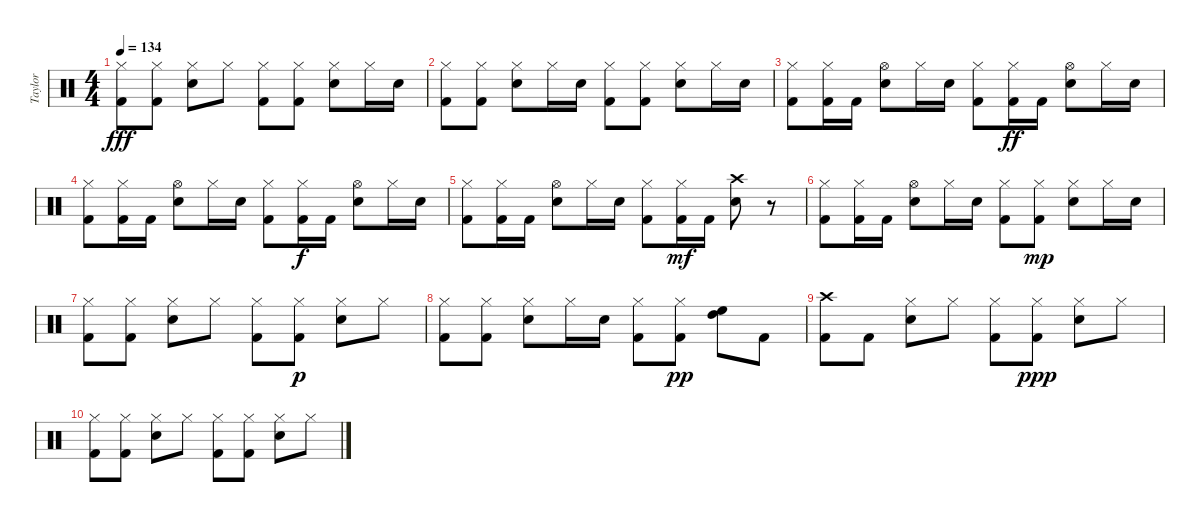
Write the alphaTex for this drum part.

\track ("Taylor" "Taylor") {instrument percussion}
\staff {score}
\articulation defaults
\ts (4 4)
\tempo 134
\clef neutral
\ks c
("Kick (hit) 2" "Hi-Hat (closed)").8{dy fff} ("Kick (hit) 2" "Hi-Hat (closed)").8 ("Snare (hit) 2" "Hi-Hat (closed)").8 "Hi-Hat (closed)".8 ("Kick (hit) 2" "Hi-Hat (closed)").8 ("Kick (hit) 2" "Hi-Hat (closed)").8 ("Snare (hit) 2" "Hi-Hat (closed)").8 "Hi-Hat (closed)".16 "Snare (hit) 2".16 |
("Kick (hit) 2" "Hi-Hat (closed)").8 ("Kick (hit) 2" "Hi-Hat (closed)").8 ("Snare (hit) 2" "Hi-Hat (closed)").8 "Hi-Hat (closed)".16 "Snare (hit) 2".16 ("Kick (hit) 2" "Hi-Hat (closed)").8 ("Kick (hit) 2" "Hi-Hat (closed)").8 ("Snare (hit) 2" "Hi-Hat (closed)").8 "Hi-Hat (closed)".16 "Snare (hit) 2".16 |
("Kick (hit) 2" "Hi-Hat (closed)").8 ("Kick (hit) 2" "Hi-Hat (closed)").16 "Kick (hit) 2".16 ("Snare (hit) 2" "Hi-Hat (open)").8 "Hi-Hat (closed)".16 "Snare (hit) 2".16 ("Kick (hit) 2" "Hi-Hat (closed)").8 ("Kick (hit) 2" "Hi-Hat (closed)").16{dy ff} "Kick (hit) 2".16 ("Snare (hit) 2" "Hi-Hat (open)").8 "Hi-Hat (closed)".16 "Snare (hit) 2".16 |
("Kick (hit) 2" "Hi-Hat (closed)").8 ("Kick (hit) 2" "Hi-Hat (closed)").16 "Kick (hit) 2".16 ("Snare (hit) 2" "Hi-Hat (open)").8 "Hi-Hat (closed)".16 "Snare (hit) 2".16 ("Kick (hit) 2" "Hi-Hat (closed)").8 ("Kick (hit) 2" "Hi-Hat (closed)").16{dy f} "Kick (hit) 2".16 ("Snare (hit) 2" "Hi-Hat (open)").8 "Hi-Hat (closed)".16 "Snare (hit) 2".16 |
("Kick (hit) 2" "Hi-Hat (closed)").8 ("Kick (hit) 2" "Hi-Hat (closed)").16 "Kick (hit) 2".16 ("Snare (hit) 2" "Hi-Hat (open)").8 "Hi-Hat (closed)".16 "Snare (hit) 2".16 ("Kick (hit) 2" "Hi-Hat (closed)").8 ("Kick (hit) 2" "Hi-Hat (closed)").16{dy mf} "Kick (hit) 2".16 ("Snare (hit) 2" "Crash high (hit)").8 r.8 |
("Kick (hit) 2" "Hi-Hat (closed)").8 ("Kick (hit) 2" "Hi-Hat (closed)").16 "Kick (hit) 2".16 ("Snare (hit) 2" "Hi-Hat (open)").8 "Hi-Hat (closed)".16 "Snare (hit) 2".16 ("Kick (hit) 2" "Hi-Hat (closed)").8 ("Kick (hit) 2" "Hi-Hat (closed)").8{dy mp} ("Snare (hit) 2" "Hi-Hat (closed)").8 "Hi-Hat (closed)".16 "Snare (hit) 2".16 |
("Kick (hit) 2" "Hi-Hat (closed)").8 ("Kick (hit) 2" "Hi-Hat (closed)").8 ("Snare (hit) 2" "Hi-Hat (closed)").8 "Hi-Hat (closed)".8 ("Kick (hit) 2" "Hi-Hat (closed)").8 ("Kick (hit) 2" "Hi-Hat (closed)").8{dy p} ("Snare (hit) 2" "Hi-Hat (closed)").8 "Hi-Hat (closed)".8 |
("Kick (hit) 2" "Hi-Hat (closed)").8 ("Kick (hit) 2" "Hi-Hat (closed)").8 ("Snare (hit) 2" "Hi-Hat (closed)").8 "Hi-Hat (closed)".16 "Snare (hit) 2".16 ("Kick (hit) 2" "Hi-Hat (closed)").8 ("Kick (hit) 2" "Hi-Hat (closed)").8{dy pp} ("High Tom (hit)" "High Floor Tom (hit)").8 "Kick (hit) 2".8 |
("Kick (hit) 2" "Crash high (hit)").8 "Kick (hit) 2".8 ("Snare (hit) 2" "Hi-Hat (closed)").8 "Hi-Hat (closed)".8 ("Kick (hit) 2" "Hi-Hat (closed)").8 ("Kick (hit) 2" "Hi-Hat (closed)").8{dy ppp} ("Snare (hit) 2" "Hi-Hat (closed)").8 "Hi-Hat (closed)".8 |
("Kick (hit) 2" "Hi-Hat (closed)").8 ("Kick (hit) 2" "Hi-Hat (closed)").8 ("Snare (hit) 2" "Hi-Hat (closed)").8 "Hi-Hat (closed)".8 ("Kick (hit) 2" "Hi-Hat (closed)").8 ("Kick (hit) 2" "Hi-Hat (closed)").8 ("Snare (hit) 2" "Hi-Hat (closed)").8 "Hi-Hat (closed)".8
